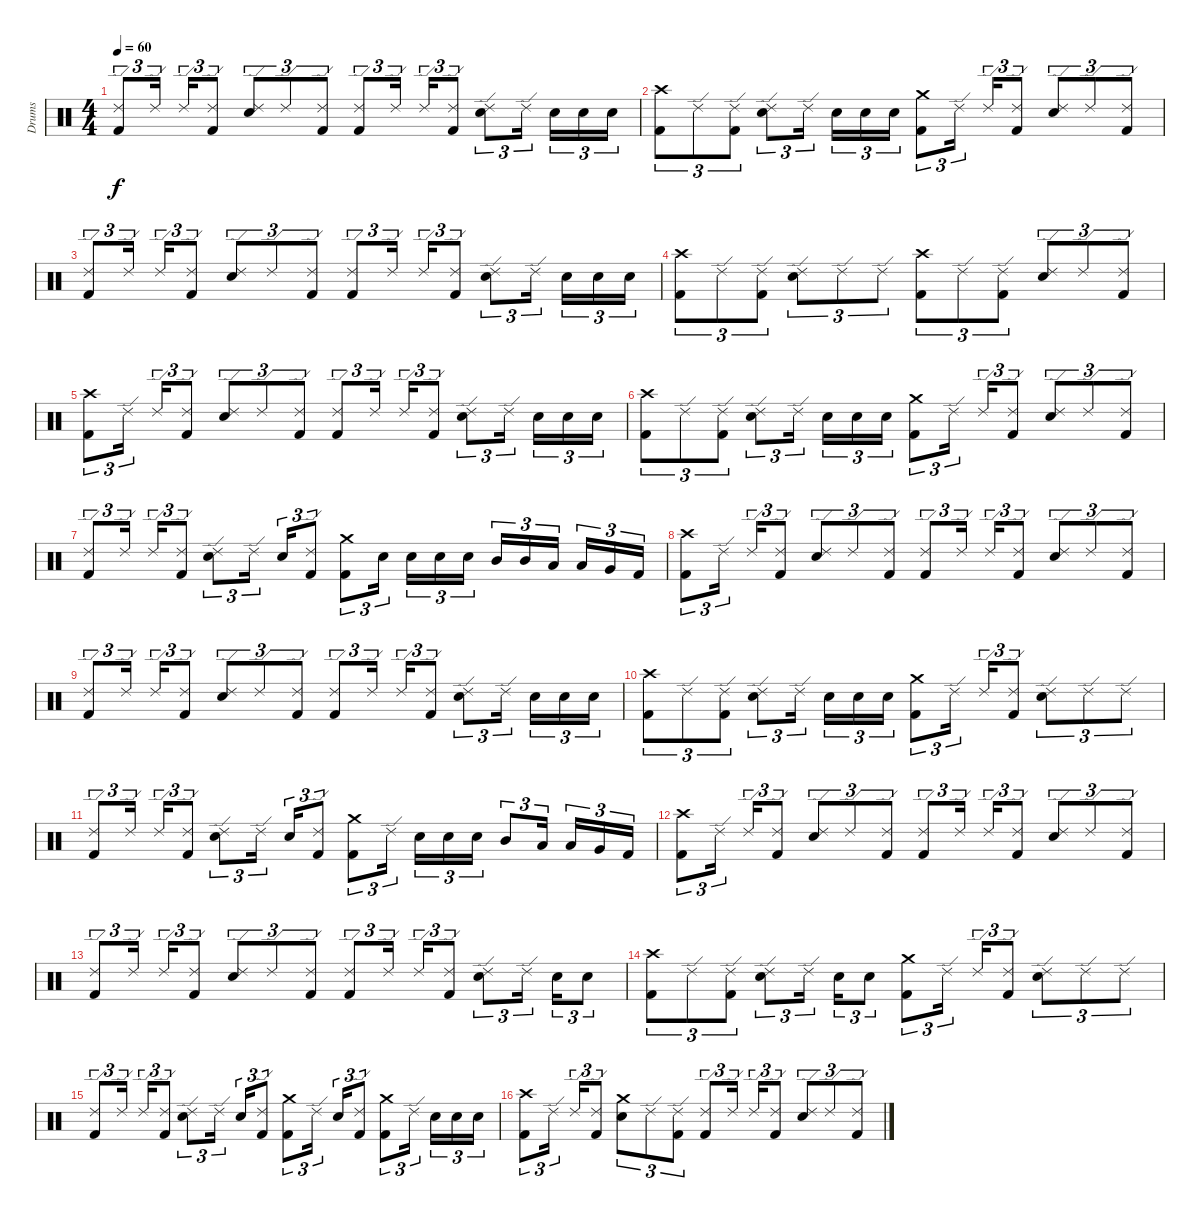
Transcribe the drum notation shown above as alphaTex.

\track ("Drums" "Drums") {instrument percussion}
\staff {score}
\articulation defaults
\ts (4 4)
\tempo 60
\clef neutral
\ks c
("Ride (edge) 2" "Kick (hit) 2").8{tu (3 2) dy f} "Ride (edge) 2".16{tu (3 2)} "Ride (edge) 2".16{tu (3 2)} ("Ride (edge) 2" "Kick (hit) 2").8{tu (3 2)} ("Ride (edge) 2" "Electric Snare (hit)").8{tu (3 2)} "Ride (edge) 2".8{tu (3 2)} ("Ride (edge) 2" "Kick (hit) 2").8{tu (3 2)} ("Ride (edge) 2" "Kick (hit) 2").8{tu (3 2)} "Ride (edge) 2".16{tu (3 2)} "Ride (edge) 2".16{tu (3 2)} ("Ride (edge) 2" "Kick (hit) 2").8{tu (3 2)} ("Ride (edge) 2" "Electric Snare (hit)").8{tu (3 2)} "Ride (edge) 2".16{tu (3 2)} "Electric Snare (hit)".16{tu (3 2)} "Electric Snare (hit)".16{tu (3 2)} "Electric Snare (hit)".16{tu (3 2)} |
("Crash high (hit)" "Kick (hit) 2").8{tu (3 2)} "Ride (edge) 2".8{tu (3 2)} ("Ride (edge) 2" "Kick (hit) 2").8{tu (3 2)} ("Ride (edge) 2" "Electric Snare (hit)").8{tu (3 2)} "Ride (edge) 2".16{tu (3 2)} "Electric Snare (hit)".16{tu (3 2)} "Electric Snare (hit)".16{tu (3 2)} "Electric Snare (hit)".16{tu (3 2)} ("Crash medium (hit)" "Kick (hit) 2").8{tu (3 2)} "Ride (edge) 2".16{tu (3 2)} "Ride (edge) 2".16{tu (3 2)} ("Ride (edge) 2" "Kick (hit) 2").8{tu (3 2)} ("Ride (edge) 2" "Electric Snare (hit)").8{tu (3 2)} "Ride (edge) 2".8{tu (3 2)} ("Ride (edge) 2" "Kick (hit) 2").8{tu (3 2)} |
("Ride (edge) 2" "Kick (hit) 2").8{tu (3 2)} "Ride (edge) 2".16{tu (3 2)} "Ride (edge) 2".16{tu (3 2)} ("Ride (edge) 2" "Kick (hit) 2").8{tu (3 2)} ("Ride (edge) 2" "Electric Snare (hit)").8{tu (3 2)} "Ride (edge) 2".8{tu (3 2)} ("Ride (edge) 2" "Kick (hit) 2").8{tu (3 2)} ("Ride (edge) 2" "Kick (hit) 2").8{tu (3 2)} "Ride (edge) 2".16{tu (3 2)} "Ride (edge) 2".16{tu (3 2)} ("Ride (edge) 2" "Kick (hit) 2").8{tu (3 2)} ("Ride (edge) 2" "Electric Snare (hit)").8{tu (3 2)} "Ride (edge) 2".16{tu (3 2)} "Electric Snare (hit)".16{tu (3 2)} "Electric Snare (hit)".16{tu (3 2)} "Electric Snare (hit)".16{tu (3 2)} |
("Crash high (hit)" "Kick (hit) 2").8{tu (3 2)} "Ride (edge) 2".8{tu (3 2)} ("Ride (edge) 2" "Kick (hit) 2").8{tu (3 2)} ("Ride (edge) 2" "Electric Snare (hit)").8{tu (3 2)} "Ride (edge) 2".8{tu (3 2)} "Ride (edge) 2".8{tu (3 2)} ("Crash high (hit)" "Kick (hit) 2").8{tu (3 2)} "Ride (edge) 2".8{tu (3 2)} ("Ride (edge) 2" "Kick (hit) 2").8{tu (3 2)} ("Ride (edge) 2" "Electric Snare (hit)").8{tu (3 2)} "Ride (edge) 2".8{tu (3 2)} ("Ride (edge) 2" "Kick (hit) 2").8{tu (3 2)} |
("Crash high (hit)" "Kick (hit) 2").8{tu (3 2)} "Ride (edge) 2".16{tu (3 2)} "Ride (edge) 2".16{tu (3 2)} ("Ride (edge) 2" "Kick (hit) 2").8{tu (3 2)} ("Ride (edge) 2" "Electric Snare (hit)").8{tu (3 2)} "Ride (edge) 2".8{tu (3 2)} ("Ride (edge) 2" "Kick (hit) 2").8{tu (3 2)} ("Ride (edge) 2" "Kick (hit) 2").8{tu (3 2)} "Ride (edge) 2".16{tu (3 2)} "Ride (edge) 2".16{tu (3 2)} ("Ride (edge) 2" "Kick (hit) 2").8{tu (3 2)} ("Ride (edge) 2" "Electric Snare (hit)").8{tu (3 2)} "Ride (edge) 2".16{tu (3 2)} "Electric Snare (hit)".16{tu (3 2)} "Electric Snare (hit)".16{tu (3 2)} "Electric Snare (hit)".16{tu (3 2)} |
("Crash high (hit)" "Kick (hit) 2").8{tu (3 2)} "Ride (edge) 2".8{tu (3 2)} ("Ride (edge) 2" "Kick (hit) 2").8{tu (3 2)} ("Ride (edge) 2" "Electric Snare (hit)").8{tu (3 2)} "Ride (edge) 2".16{tu (3 2)} "Electric Snare (hit)".16{tu (3 2)} "Electric Snare (hit)".16{tu (3 2)} "Electric Snare (hit)".16{tu (3 2)} ("Crash medium (hit)" "Kick (hit) 2").8{tu (3 2)} "Ride (edge) 2".16{tu (3 2)} "Ride (edge) 2".16{tu (3 2)} ("Ride (edge) 2" "Kick (hit) 2").8{tu (3 2)} ("Ride (edge) 2" "Electric Snare (hit)").8{tu (3 2)} "Ride (edge) 2".8{tu (3 2)} ("Ride (edge) 2" "Kick (hit) 2").8{tu (3 2)} |
("Ride (edge) 2" "Kick (hit) 2").8{tu (3 2)} "Ride (edge) 2".16{tu (3 2)} "Ride (edge) 2".16{tu (3 2)} ("Ride (edge) 2" "Kick (hit) 2").8{tu (3 2)} ("Ride (edge) 2" "Electric Snare (hit)").8{tu (3 2)} "Ride (edge) 2".16{tu (3 2)} "Electric Snare (hit)".16{tu (3 2)} ("Ride (edge) 2" "Kick (hit) 2").8{tu (3 2)} ("Crash medium (hit)" "Kick (hit) 2").8{tu (3 2)} "Electric Snare (hit)".16{tu (3 2)} "Electric Snare (hit)".16{tu (3 2)} "Electric Snare (hit)".16{tu (3 2)} "Electric Snare (hit)".16{tu (3 2)} "Mid Tom (hit)".16{tu (3 2)} "Mid Tom (hit)".16{tu (3 2)} "Low Tom (hit)".16{tu (3 2)} "Low Tom (hit)".16{tu (3 2)} "Very Low Tom (hit)".16{tu (3 2)} "Kick (hit) 2".16{tu (3 2)} |
("Crash high (hit)" "Kick (hit) 2").8{tu (3 2)} "Ride (edge) 2".16{tu (3 2)} "Ride (edge) 2".16{tu (3 2)} ("Ride (edge) 2" "Kick (hit) 2").8{tu (3 2)} ("Ride (edge) 2" "Electric Snare (hit)").8{tu (3 2)} "Ride (edge) 2".8{tu (3 2)} ("Ride (edge) 2" "Kick (hit) 2").8{tu (3 2)} ("Ride (edge) 2" "Kick (hit) 2").8{tu (3 2)} "Ride (edge) 2".16{tu (3 2)} "Ride (edge) 2".16{tu (3 2)} ("Ride (edge) 2" "Kick (hit) 2").8{tu (3 2)} ("Ride (edge) 2" "Electric Snare (hit)").8{tu (3 2)} "Ride (edge) 2".8{tu (3 2)} ("Ride (edge) 2" "Kick (hit) 2").8{tu (3 2)} |
("Ride (edge) 2" "Kick (hit) 2").8{tu (3 2)} "Ride (edge) 2".16{tu (3 2)} "Ride (edge) 2".16{tu (3 2)} ("Ride (edge) 2" "Kick (hit) 2").8{tu (3 2)} ("Ride (edge) 2" "Electric Snare (hit)").8{tu (3 2)} "Ride (edge) 2".8{tu (3 2)} ("Ride (edge) 2" "Kick (hit) 2").8{tu (3 2)} ("Ride (edge) 2" "Kick (hit) 2").8{tu (3 2)} "Ride (edge) 2".16{tu (3 2)} "Ride (edge) 2".16{tu (3 2)} ("Ride (edge) 2" "Kick (hit) 2").8{tu (3 2)} ("Ride (edge) 2" "Electric Snare (hit)").8{tu (3 2)} "Ride (edge) 2".16{tu (3 2)} "Electric Snare (hit)".16{tu (3 2)} "Electric Snare (hit)".16{tu (3 2)} "Electric Snare (hit)".16{tu (3 2)} |
("Crash high (hit)" "Kick (hit) 2").8{tu (3 2)} "Ride (edge) 2".8{tu (3 2)} ("Ride (edge) 2" "Kick (hit) 2").8{tu (3 2)} ("Ride (edge) 2" "Electric Snare (hit)").8{tu (3 2)} "Ride (edge) 2".16{tu (3 2)} "Electric Snare (hit)".16{tu (3 2)} "Electric Snare (hit)".16{tu (3 2)} "Electric Snare (hit)".16{tu (3 2)} ("Crash medium (hit)" "Kick (hit) 2").8{tu (3 2)} "Ride (edge) 2".16{tu (3 2)} "Ride (edge) 2".16{tu (3 2)} ("Ride (edge) 2" "Kick (hit) 2").8{tu (3 2)} ("Ride (edge) 2" "Electric Snare (hit)").8{tu (3 2)} "Ride (edge) 2".8{tu (3 2)} "Ride (edge) 2".8{tu (3 2)} |
("Ride (edge) 2" "Kick (hit) 2").8{tu (3 2)} "Ride (edge) 2".16{tu (3 2)} "Ride (edge) 2".16{tu (3 2)} ("Ride (edge) 2" "Kick (hit) 2").8{tu (3 2)} ("Ride (edge) 2" "Electric Snare (hit)").8{tu (3 2)} "Ride (edge) 2".16{tu (3 2)} "Electric Snare (hit)".16{tu (3 2)} ("Ride (edge) 2" "Kick (hit) 2").8{tu (3 2)} ("Crash medium (hit)" "Kick (hit) 2").8{tu (3 2)} "Ride (edge) 2".16{tu (3 2)} "Electric Snare (hit)".16{tu (3 2)} "Electric Snare (hit)".16{tu (3 2)} "Electric Snare (hit)".16{tu (3 2)} "Mid Tom (hit)".8{tu (3 2)} "Low Tom (hit)".16{tu (3 2)} "Low Tom (hit)".16{tu (3 2)} "Very Low Tom (hit)".16{tu (3 2)} "Kick (hit) 2".16{tu (3 2)} |
("Crash high (hit)" "Kick (hit) 2").8{tu (3 2)} "Ride (edge) 2".16{tu (3 2)} "Ride (edge) 2".16{tu (3 2)} ("Ride (edge) 2" "Kick (hit) 2").8{tu (3 2)} ("Ride (edge) 2" "Electric Snare (hit)").8{tu (3 2)} "Ride (edge) 2".8{tu (3 2)} ("Ride (edge) 2" "Kick (hit) 2").8{tu (3 2)} ("Ride (edge) 2" "Kick (hit) 2").8{tu (3 2)} "Ride (edge) 2".16{tu (3 2)} "Ride (edge) 2".16{tu (3 2)} ("Ride (edge) 2" "Kick (hit) 2").8{tu (3 2)} ("Ride (edge) 2" "Electric Snare (hit)").8{tu (3 2)} "Ride (edge) 2".8{tu (3 2)} ("Ride (edge) 2" "Kick (hit) 2").8{tu (3 2)} |
("Ride (edge) 2" "Kick (hit) 2").8{tu (3 2)} "Ride (edge) 2".16{tu (3 2)} "Ride (edge) 2".16{tu (3 2)} ("Ride (edge) 2" "Kick (hit) 2").8{tu (3 2)} ("Ride (edge) 2" "Electric Snare (hit)").8{tu (3 2)} "Ride (edge) 2".8{tu (3 2)} ("Ride (edge) 2" "Kick (hit) 2").8{tu (3 2)} ("Ride (edge) 2" "Kick (hit) 2").8{tu (3 2)} "Ride (edge) 2".16{tu (3 2)} "Ride (edge) 2".16{tu (3 2)} ("Ride (edge) 2" "Kick (hit) 2").8{tu (3 2)} ("Ride (edge) 2" "Electric Snare (hit)").8{tu (3 2)} "Ride (edge) 2".16{tu (3 2)} "Electric Snare (hit)".16{tu (3 2)} "Electric Snare (hit)".8{tu (3 2)} |
("Crash high (hit)" "Kick (hit) 2").8{tu (3 2)} "Ride (edge) 2".8{tu (3 2)} ("Ride (edge) 2" "Kick (hit) 2").8{tu (3 2)} ("Ride (edge) 2" "Electric Snare (hit)").8{tu (3 2)} "Ride (edge) 2".16{tu (3 2)} "Electric Snare (hit)".16{tu (3 2)} "Electric Snare (hit)".8{tu (3 2)} ("Crash medium (hit)" "Kick (hit) 2").8{tu (3 2)} "Ride (edge) 2".16{tu (3 2)} "Ride (edge) 2".16{tu (3 2)} ("Ride (edge) 2" "Kick (hit) 2").8{tu (3 2)} ("Ride (edge) 2" "Electric Snare (hit)").8{tu (3 2)} "Ride (edge) 2".8{tu (3 2)} "Ride (edge) 2".8{tu (3 2)} |
("Ride (edge) 2" "Kick (hit) 2").8{tu (3 2)} "Ride (edge) 2".16{tu (3 2)} "Ride (edge) 2".16{tu (3 2)} ("Ride (edge) 2" "Kick (hit) 2").8{tu (3 2)} ("Ride (edge) 2" "Electric Snare (hit)").8{tu (3 2)} "Ride (edge) 2".16{tu (3 2)} "Electric Snare (hit)".16{tu (3 2)} ("Ride (edge) 2" "Kick (hit) 2").8{tu (3 2)} ("Crash medium (hit)" "Kick (hit) 2").8{tu (3 2)} "Ride (edge) 2".16{tu (3 2)} "Electric Snare (hit)".16{tu (3 2)} ("Ride (edge) 2" "Kick (hit) 2").8{tu (3 2)} ("Crash medium (hit)" "Kick (hit) 2").8{tu (3 2)} "Ride (edge) 2".16{tu (3 2)} "Electric Snare (hit)".16{tu (3 2)} "Electric Snare (hit)".16{tu (3 2)} "Electric Snare (hit)".16{tu (3 2)} |
("Crash high (hit)" "Kick (hit) 2").8{tu (3 2)} "Ride (edge) 2".16{tu (3 2)} "Ride (edge) 2".16{tu (3 2)} ("Ride (edge) 2" "Kick (hit) 2").8{tu (3 2)} ("Crash medium (hit)" "Electric Snare (hit)").8{tu (3 2)} "Ride (edge) 2".8{tu (3 2)} ("Ride (edge) 2" "Kick (hit) 2").8{tu (3 2)} ("Ride (edge) 2" "Kick (hit) 2").8{tu (3 2)} "Ride (edge) 2".16{tu (3 2)} "Ride (edge) 2".16{tu (3 2)} ("Ride (edge) 2" "Kick (hit) 2").8{tu (3 2)} ("Ride (edge) 2" "Electric Snare (hit)").8{tu (3 2)} "Ride (edge) 2".8{tu (3 2)} ("Ride (edge) 2" "Kick (hit) 2").8{tu (3 2)}
